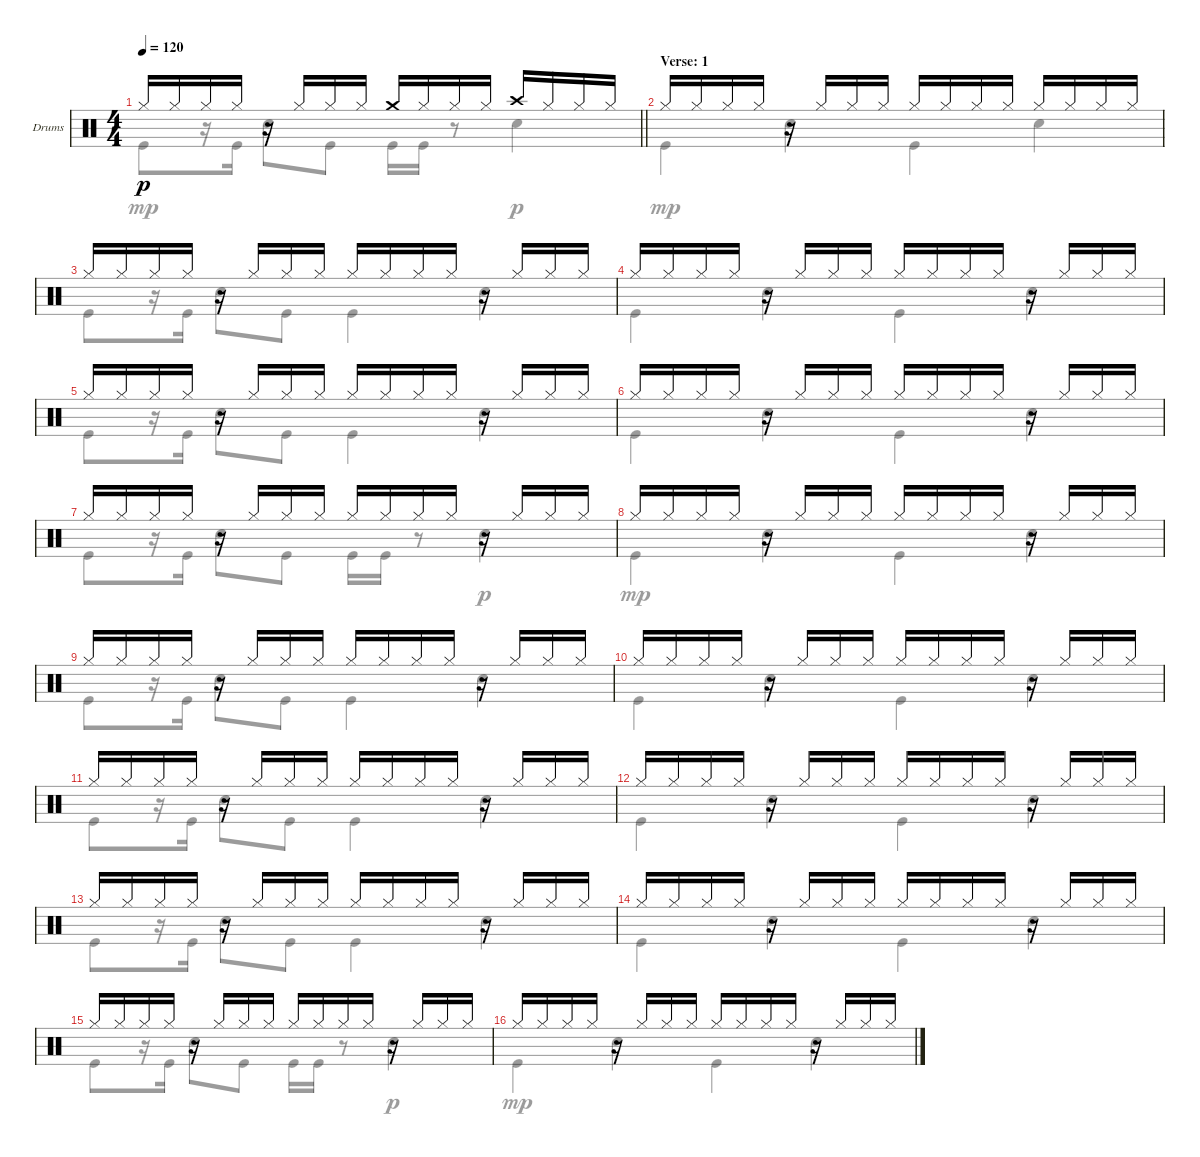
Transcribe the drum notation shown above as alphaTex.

\bracketExtendMode groupsimilarinstruments
\firstSystemTrackNameOrientation horizontal
\otherSystemsTrackNameOrientation horizontal
\track ("Drumkit" "Drums") {instrument percussion}
\staff {score}
\articulation defaults
\voice
\ts (4 4)
\tempo 120
\clef neutral
\barLineRight lightlight
\ks c "Hi-Hat (closed)".16{dy p} "Hi-Hat (closed)".16 "Hi-Hat (closed)".16 "Hi-Hat (closed)".16
r.16 "Hi-Hat (closed)".16 "Hi-Hat (closed)".16 "Hi-Hat (closed)".16 "Crash medium (hit)".16 "Hi-Hat (closed)".16 "Hi-Hat (closed)".16 "Hi-Hat (closed)".16 "Crash high (hit)".16 "Hi-Hat (closed)".16 "Hi-Hat (closed)".16 "Hi-Hat (closed)".16 |
\section ("" "Verse: 1")
"Hi-Hat (closed)".16 "Hi-Hat (closed)".16 "Hi-Hat (closed)".16 "Hi-Hat (closed)".16 r.16 "Hi-Hat (closed)".16 "Hi-Hat (closed)".16 "Hi-Hat (closed)".16 "Hi-Hat (closed)".16 "Hi-Hat (closed)".16 "Hi-Hat (closed)".16 "Hi-Hat (closed)".16 "Hi-Hat (closed)".16 "Hi-Hat (closed)".16 "Hi-Hat (closed)".16 "Hi-Hat (closed)".16 |
"Hi-Hat (closed)".16 "Hi-Hat (closed)".16 "Hi-Hat (closed)".16 "Hi-Hat (closed)".16 r.16 "Hi-Hat (closed)".16 "Hi-Hat (closed)".16 "Hi-Hat (closed)".16 "Hi-Hat (closed)".16 "Hi-Hat (closed)".16 "Hi-Hat (closed)".16 "Hi-Hat (closed)".16 r.16 "Hi-Hat (closed)".16 "Hi-Hat (closed)".16 "Hi-Hat (closed)".16 |
"Hi-Hat (closed)".16 "Hi-Hat (closed)".16 "Hi-Hat (closed)".16 "Hi-Hat (closed)".16 r.16 "Hi-Hat (closed)".16 "Hi-Hat (closed)".16 "Hi-Hat (closed)".16 "Hi-Hat (closed)".16 "Hi-Hat (closed)".16 "Hi-Hat (closed)".16 "Hi-Hat (closed)".16 r.16 "Hi-Hat (closed)".16 "Hi-Hat (closed)".16 "Hi-Hat (closed)".16 |
"Hi-Hat (closed)".16 "Hi-Hat (closed)".16 "Hi-Hat (closed)".16 "Hi-Hat (closed)".16 r.16 "Hi-Hat (closed)".16 "Hi-Hat (closed)".16 "Hi-Hat (closed)".16 "Hi-Hat (closed)".16 "Hi-Hat (closed)".16 "Hi-Hat (closed)".16 "Hi-Hat (closed)".16 r.16 "Hi-Hat (closed)".16 "Hi-Hat (closed)".16 "Hi-Hat (closed)".16 |
"Hi-Hat (closed)".16 "Hi-Hat (closed)".16 "Hi-Hat (closed)".16 "Hi-Hat (closed)".16 r.16 "Hi-Hat (closed)".16 "Hi-Hat (closed)".16 "Hi-Hat (closed)".16 "Hi-Hat (closed)".16 "Hi-Hat (closed)".16 "Hi-Hat (closed)".16 "Hi-Hat (closed)".16 r.16 "Hi-Hat (closed)".16 "Hi-Hat (closed)".16 "Hi-Hat (closed)".16 |
"Hi-Hat (closed)".16 "Hi-Hat (closed)".16 "Hi-Hat (closed)".16 "Hi-Hat (closed)".16 r.16 "Hi-Hat (closed)".16 "Hi-Hat (closed)".16 "Hi-Hat (closed)".16 "Hi-Hat (closed)".16 "Hi-Hat (closed)".16 "Hi-Hat (closed)".16 "Hi-Hat (closed)".16 r.16 "Hi-Hat (closed)".16 "Hi-Hat (closed)".16 "Hi-Hat (closed)".16 |
"Hi-Hat (closed)".16 "Hi-Hat (closed)".16 "Hi-Hat (closed)".16 "Hi-Hat (closed)".16 r.16 "Hi-Hat (closed)".16 "Hi-Hat (closed)".16 "Hi-Hat (closed)".16 "Hi-Hat (closed)".16 "Hi-Hat (closed)".16 "Hi-Hat (closed)".16 "Hi-Hat (closed)".16 r.16 "Hi-Hat (closed)".16 "Hi-Hat (closed)".16 "Hi-Hat (closed)".16 |
"Hi-Hat (closed)".16 "Hi-Hat (closed)".16 "Hi-Hat (closed)".16 "Hi-Hat (closed)".16 r.16 "Hi-Hat (closed)".16 "Hi-Hat (closed)".16 "Hi-Hat (closed)".16 "Hi-Hat (closed)".16 "Hi-Hat (closed)".16 "Hi-Hat (closed)".16 "Hi-Hat (closed)".16 r.16 "Hi-Hat (closed)".16 "Hi-Hat (closed)".16 "Hi-Hat (closed)".16 |
"Hi-Hat (closed)".16 "Hi-Hat (closed)".16 "Hi-Hat (closed)".16 "Hi-Hat (closed)".16 r.16 "Hi-Hat (closed)".16 "Hi-Hat (closed)".16 "Hi-Hat (closed)".16 "Hi-Hat (closed)".16 "Hi-Hat (closed)".16 "Hi-Hat (closed)".16 "Hi-Hat (closed)".16 r.16 "Hi-Hat (closed)".16 "Hi-Hat (closed)".16 "Hi-Hat (closed)".16 |
"Hi-Hat (closed)".16 "Hi-Hat (closed)".16 "Hi-Hat (closed)".16 "Hi-Hat (closed)".16 r.16 "Hi-Hat (closed)".16 "Hi-Hat (closed)".16 "Hi-Hat (closed)".16 "Hi-Hat (closed)".16 "Hi-Hat (closed)".16 "Hi-Hat (closed)".16 "Hi-Hat (closed)".16 r.16 "Hi-Hat (closed)".16 "Hi-Hat (closed)".16 "Hi-Hat (closed)".16 |
"Hi-Hat (closed)".16 "Hi-Hat (closed)".16 "Hi-Hat (closed)".16 "Hi-Hat (closed)".16 r.16 "Hi-Hat (closed)".16 "Hi-Hat (closed)".16 "Hi-Hat (closed)".16 "Hi-Hat (closed)".16 "Hi-Hat (closed)".16 "Hi-Hat (closed)".16 "Hi-Hat (closed)".16 r.16 "Hi-Hat (closed)".16 "Hi-Hat (closed)".16 "Hi-Hat (closed)".16 |
"Hi-Hat (closed)".16 "Hi-Hat (closed)".16 "Hi-Hat (closed)".16 "Hi-Hat (closed)".16 r.16 "Hi-Hat (closed)".16 "Hi-Hat (closed)".16 "Hi-Hat (closed)".16 "Hi-Hat (closed)".16 "Hi-Hat (closed)".16 "Hi-Hat (closed)".16 "Hi-Hat (closed)".16 r.16 "Hi-Hat (closed)".16 "Hi-Hat (closed)".16 "Hi-Hat (closed)".16 |
"Hi-Hat (closed)".16 "Hi-Hat (closed)".16 "Hi-Hat (closed)".16 "Hi-Hat (closed)".16 r.16 "Hi-Hat (closed)".16 "Hi-Hat (closed)".16 "Hi-Hat (closed)".16 "Hi-Hat (closed)".16 "Hi-Hat (closed)".16 "Hi-Hat (closed)".16 "Hi-Hat (closed)".16 r.16 "Hi-Hat (closed)".16 "Hi-Hat (closed)".16 "Hi-Hat (closed)".16 |
"Hi-Hat (closed)".16 "Hi-Hat (closed)".16 "Hi-Hat (closed)".16 "Hi-Hat (closed)".16 r.16 "Hi-Hat (closed)".16 "Hi-Hat (closed)".16 "Hi-Hat (closed)".16 "Hi-Hat (closed)".16 "Hi-Hat (closed)".16 "Hi-Hat (closed)".16 "Hi-Hat (closed)".16 r.16 "Hi-Hat (closed)".16 "Hi-Hat (closed)".16 "Hi-Hat (closed)".16 |
"Hi-Hat (closed)".16 "Hi-Hat (closed)".16 "Hi-Hat (closed)".16 "Hi-Hat (closed)".16 r.16 "Hi-Hat (closed)".16 "Hi-Hat (closed)".16 "Hi-Hat (closed)".16 "Hi-Hat (closed)".16 "Hi-Hat (closed)".16 "Hi-Hat (closed)".16 "Hi-Hat (closed)".16 r.16 "Hi-Hat (closed)".16 "Hi-Hat (closed)".16 "Hi-Hat (closed)".16
\voice
\clef neutral
\ottava regular
\simile none
\barLineRight lightlight
\ks c "Kick (hit)".8{dy mp}
r.16 "Kick (hit)".16 "Snare (hit) 2".8 "Kick (hit)".8 "Kick (hit)".16 "Kick (hit)".16 r.8 "Snare (hit) 2".4{dy p} |
"Kick (hit)".4{dy mp} "Snare (hit) 2".4 "Kick (hit)".4 "Snare (hit) 2".4 |
"Kick (hit)".8 r.16 "Kick (hit)".16 "Snare (hit) 2".8 "Kick (hit)".8 "Kick (hit)".4 "Snare (hit) 2".4 |
"Kick (hit)".4 "Snare (hit) 2".4 "Kick (hit)".4 "Snare (hit) 2".4 |
"Kick (hit)".8 r.16 "Kick (hit)".16 "Snare (hit) 2".8 "Kick (hit)".8 "Kick (hit)".4 "Snare (hit) 2".4 |
"Kick (hit)".4 "Snare (hit) 2".4 "Kick (hit)".4 "Snare (hit) 2".4 |
"Kick (hit)".8 r.16 "Kick (hit)".16 "Snare (hit) 2".8 "Kick (hit)".8 "Kick (hit)".16 "Kick (hit)".16 r.8 "Snare (hit) 2".4{dy p} |
"Kick (hit)".4{dy mp} "Snare (hit) 2".4 "Kick (hit)".4 "Snare (hit) 2".4 |
"Kick (hit)".8 r.16 "Kick (hit)".16 "Snare (hit) 2".8 "Kick (hit)".8 "Kick (hit)".4 "Snare (hit) 2".4 |
"Kick (hit)".4 "Snare (hit) 2".4 "Kick (hit)".4 "Snare (hit) 2".4 |
"Kick (hit)".8 r.16 "Kick (hit)".16 "Snare (hit) 2".8 "Kick (hit)".8 "Kick (hit)".4 "Snare (hit) 2".4 |
"Kick (hit)".4 "Snare (hit) 2".4 "Kick (hit)".4 "Snare (hit) 2".4 |
"Kick (hit)".8 r.16 "Kick (hit)".16 "Snare (hit) 2".8 "Kick (hit)".8 "Kick (hit)".4 "Snare (hit) 2".4 |
"Kick (hit)".4 "Snare (hit) 2".4 "Kick (hit)".4 "Snare (hit) 2".4 |
"Kick (hit)".8 r.16 "Kick (hit)".16 "Snare (hit) 2".8 "Kick (hit)".8 "Kick (hit)".16 "Kick (hit)".16 r.8 "Snare (hit) 2".4{dy p} |
"Kick (hit)".4{dy mp} "Snare (hit) 2".4 "Kick (hit)".4 "Snare (hit) 2".4
